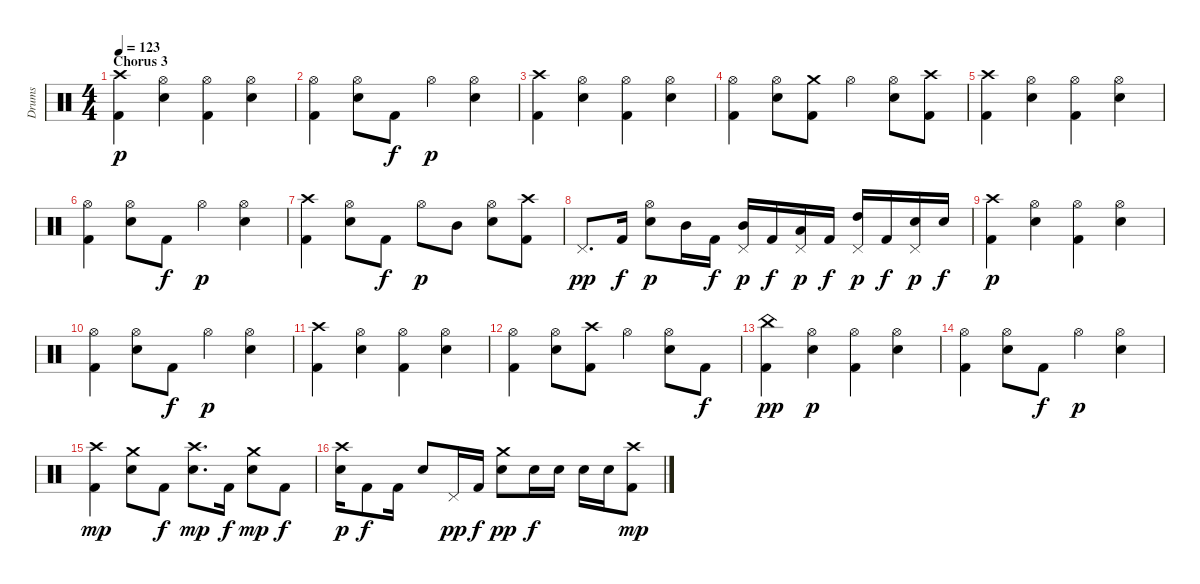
\track ("Drums" "Drums") {instrument percussion}
\staff {score}
\articulation defaults
\ts (4 4)
\section ("" "Chorus 3")
\tempo 123
\clef neutral
\ks c
("Kick (hit) 2" "Crash high (hit)").4{dy p} ("Electric Snare (hit)" "Hi-Hat (open)").4 ("Kick (hit) 2" "Hi-Hat (open)").4 ("Electric Snare (hit)" "Hi-Hat (open)").4 |
("Kick (hit) 2" "Hi-Hat (open)").4 ("Electric Snare (hit)" "Hi-Hat (open)").8 "Kick (hit) 2".8{dy f} "Hi-Hat (open)".4{dy p} ("Electric Snare (hit)" "Hi-Hat (open)").4 |
("Kick (hit) 2" "Crash high (hit)").4 ("Electric Snare (hit)" "Hi-Hat (open)").4 ("Kick (hit) 2" "Hi-Hat (open)").4 ("Electric Snare (hit)" "Hi-Hat (open)").4 |
("Kick (hit) 2" "Hi-Hat (open)").4 ("Electric Snare (hit)" "Hi-Hat (open)").8 ("Kick (hit) 2" "Crash medium (hit)").8 "Hi-Hat (open)".4 ("Electric Snare (hit)" "Hi-Hat (open)").8 ("Kick (hit) 2" "Crash high (hit)").8 |
("Kick (hit) 2" "Crash high (hit)").4 ("Electric Snare (hit)" "Hi-Hat (open)").4 ("Kick (hit) 2" "Hi-Hat (open)").4 ("Electric Snare (hit)" "Hi-Hat (open)").4 |
("Kick (hit) 2" "Hi-Hat (open)").4 ("Electric Snare (hit)" "Hi-Hat (open)").8 "Kick (hit) 2".8{dy f} "Hi-Hat (open)".4{dy p} ("Electric Snare (hit)" "Hi-Hat (open)").4 |
("Kick (hit) 2" "Crash high (hit)").4 ("Electric Snare (hit)" "Hi-Hat (open)").8 "Kick (hit) 2".8{dy f} "Hi-Hat (open)".8{dy p} "Mid Tom (hit)".8 ("Electric Snare (hit)" "Hi-Hat (open)").8 ("Kick (hit) 2" "Crash high (hit)").8 |
"Pedal Hi-Hat (hit)".8{d dy pp} "Kick (hit) 2".16{dy f} ("Electric Snare (hit)" "Hi-Hat (open)").8{dy p} "Mid Tom (hit)".16 "Kick (hit) 2".16{dy f} ("Mid Tom (hit)" "Pedal Hi-Hat (hit)").16{dy p} "Kick (hit) 2".16{dy f} ("Low Tom (hit)" "Pedal Hi-Hat (hit)").16{dy p} "Kick (hit) 2".16{dy f} ("High Tom (hit)" "Pedal Hi-Hat (hit)").16{dy p} "Kick (hit) 2".16{dy f} ("Electric Snare (hit)" "Pedal Hi-Hat (hit)").16{dy p} "Electric Snare (hit)".16{dy f} |
("Kick (hit) 2" "Crash high (hit)").4{dy p} ("Electric Snare (hit)" "Hi-Hat (open)").4 ("Kick (hit) 2" "Hi-Hat (open)").4 ("Electric Snare (hit)" "Hi-Hat (open)").4 |
("Kick (hit) 2" "Hi-Hat (open)").4 ("Electric Snare (hit)" "Hi-Hat (open)").8 "Kick (hit) 2".8{dy f} "Hi-Hat (open)".4{dy p} ("Electric Snare (hit)" "Hi-Hat (open)").4 |
("Kick (hit) 2" "Crash high (hit)").4 ("Electric Snare (hit)" "Hi-Hat (open)").4 ("Kick (hit) 2" "Hi-Hat (open)").4 ("Electric Snare (hit)" "Hi-Hat (open)").4 |
("Kick (hit) 2" "Hi-Hat (open)").4 ("Electric Snare (hit)" "Hi-Hat (open)").8 ("Kick (hit) 2" "Crash high (hit)").8 "Hi-Hat (open)".4 ("Electric Snare (hit)" "Hi-Hat (open)").8 "Kick (hit) 2".8{dy f} |
("Kick (hit) 2" "China (hit)").4{dy pp} ("Electric Snare (hit)" "Hi-Hat (open)").4{dy p} ("Kick (hit) 2" "Hi-Hat (open)").4 ("Electric Snare (hit)" "Hi-Hat (open)").4 |
("Kick (hit) 2" "Hi-Hat (open)").4 ("Electric Snare (hit)" "Hi-Hat (open)").8 "Kick (hit) 2".8{dy f} "Hi-Hat (open)".4{dy p} ("Electric Snare (hit)" "Hi-Hat (open)").4 |
("Crash high (hit)" "Kick (hit) 2").4{dy mp} ("Crash medium (hit)" "Electric Snare (hit)").8 "Kick (hit) 2".8{dy f} ("Crash high (hit)" "Electric Snare (hit)").8{d dy mp} "Kick (hit) 2".16{dy f} ("Crash medium (hit)" "Electric Snare (hit)").8{dy mp} "Kick (hit) 2".8{dy f} |
("Electric Snare (hit)" "Crash high (hit)").16{dy p} "Kick (hit) 2".8{dy f} "Kick (hit) 2".16 "Electric Snare (hit)".8 "Pedal Hi-Hat (hit)".16{dy pp} "Kick (hit) 2".16{dy f} ("Electric Snare (hit)" "Crash medium (hit)").8{dy pp} "Electric Snare (hit)".16{dy f} "Electric Snare (hit)".16 "Electric Snare (hit)".16 "Electric Snare (hit)".16 ("Kick (hit) 2" "Crash high (hit)").8{dy mp}
